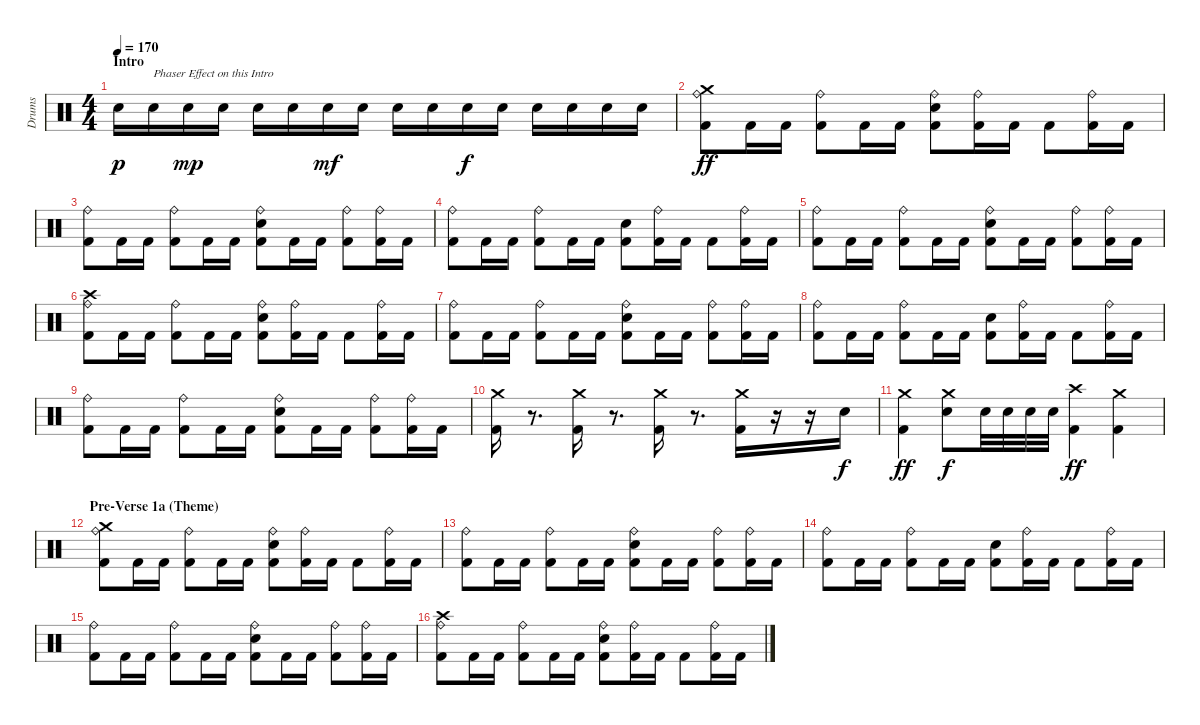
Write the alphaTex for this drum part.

\track ("Drums" "Drums") {instrument percussion}
\staff {score}
\articulation defaults
\ts (4 4)
\section ("" "Intro")
\tempo 170
\clef neutral
\ks c "Electric Snare (hit)".16{dy p} "Electric Snare (hit)".16{txt "Phaser Effect on this Intro"} "Electric Snare (hit)".16{dy mp} "Electric Snare (hit)".16 "Electric Snare (hit)".16 "Electric Snare (hit)".16 "Electric Snare (hit)".16{dy mf} "Electric Snare (hit)".16 "Electric Snare (hit)".16 "Electric Snare (hit)".16 "Electric Snare (hit)".16{dy f} "Electric Snare (hit)".16 "Electric Snare (hit)".16 "Electric Snare (hit)".16 "Electric Snare (hit)".16 "Electric Snare (hit)".16
|
("Crash medium (hit)" "Ride (bell)" "Kick (hit) 2").8{dy ff} "Kick (hit) 2".16 "Kick (hit) 2".16 ("Ride (bell)" "Kick (hit) 2").8 "Kick (hit) 2".16 "Kick (hit) 2".16 ("Ride (bell)" "Snare (hit) 2" "Kick (hit) 2").8 ("Ride (bell)" "Kick (hit) 2").16 "Kick (hit) 2".16 "Kick (hit) 2".8 ("Ride (bell)" "Kick (hit) 2").16 "Kick (hit) 2".16 |
("Ride (bell)" "Kick (hit) 2").8 "Kick (hit) 2".16 "Kick (hit) 2".16 ("Ride (bell)" "Kick (hit) 2").8 "Kick (hit) 2".16 "Kick (hit) 2".16 ("Ride (bell)" "Snare (hit) 2" "Kick (hit) 2").8 "Kick (hit) 2".16 "Kick (hit) 2".16 ("Ride (bell)" "Kick (hit) 2").8 ("Ride (bell)" "Kick (hit) 2").16 "Kick (hit) 2".16 |
("Ride (bell)" "Kick (hit) 2").8 "Kick (hit) 2".16 "Kick (hit) 2".16 ("Ride (bell)" "Kick (hit) 2").8 "Kick (hit) 2".16 "Kick (hit) 2".16 ("Snare (hit) 2" "Kick (hit) 2").8 ("Ride (bell)" "Kick (hit) 2").16 "Kick (hit) 2".16 "Kick (hit) 2".8 ("Ride (bell)" "Kick (hit) 2").16 "Kick (hit) 2".16 |
("Ride (bell)" "Kick (hit) 2").8 "Kick (hit) 2".16 "Kick (hit) 2".16 ("Ride (bell)" "Kick (hit) 2").8 "Kick (hit) 2".16 "Kick (hit) 2".16 ("Ride (bell)" "Snare (hit) 2" "Kick (hit) 2").8 "Kick (hit) 2".16 "Kick (hit) 2".16 ("Ride (bell)" "Kick (hit) 2").8 ("Ride (bell)" "Kick (hit) 2").16 "Kick (hit) 2".16 |
("Crash high (hit)" "Ride (bell)" "Kick (hit) 2").8 "Kick (hit) 2".16 "Kick (hit) 2".16 ("Ride (bell)" "Kick (hit) 2").8 "Kick (hit) 2".16 "Kick (hit) 2".16 ("Ride (bell)" "Snare (hit) 2" "Kick (hit) 2").8 ("Ride (bell)" "Kick (hit) 2").16 "Kick (hit) 2".16 "Kick (hit) 2".8 ("Ride (bell)" "Kick (hit) 2").16 "Kick (hit) 2".16 |
("Ride (bell)" "Kick (hit) 2").8 "Kick (hit) 2".16 "Kick (hit) 2".16 ("Ride (bell)" "Kick (hit) 2").8 "Kick (hit) 2".16 "Kick (hit) 2".16 ("Ride (bell)" "Snare (hit) 2" "Kick (hit) 2").8 "Kick (hit) 2".16 "Kick (hit) 2".16 ("Ride (bell)" "Kick (hit) 2").8 ("Ride (bell)" "Kick (hit) 2").16 "Kick (hit) 2".16 |
("Ride (bell)" "Kick (hit) 2").8 "Kick (hit) 2".16 "Kick (hit) 2".16 ("Ride (bell)" "Kick (hit) 2").8 "Kick (hit) 2".16 "Kick (hit) 2".16 ("Snare (hit) 2" "Kick (hit) 2").8 ("Ride (bell)" "Kick (hit) 2").16 "Kick (hit) 2".16 "Kick (hit) 2".8 ("Ride (bell)" "Kick (hit) 2").16 "Kick (hit) 2".16 |
("Ride (bell)" "Kick (hit) 2").8 "Kick (hit) 2".16 "Kick (hit) 2".16 ("Ride (bell)" "Kick (hit) 2").8 "Kick (hit) 2".16 "Kick (hit) 2".16 ("Ride (bell)" "Snare (hit) 2" "Kick (hit) 2").8 "Kick (hit) 2".16 "Kick (hit) 2".16 ("Ride (bell)" "Kick (hit) 2").8 ("Ride (bell)" "Kick (hit) 2").16 "Kick (hit) 2".16 |
("Crash medium (hit)" "Kick (hit) 2").16 r.8{d} ("Crash medium (hit)" "Kick (hit) 2").16 r.8{d} ("Crash medium (hit)" "Kick (hit) 2").16 r.8{d} ("Crash medium (hit)" "Kick (hit) 2").16 r.16 r.16 "Snare (hit) 2".16{dy f} |
("Crash medium (hit)" "Kick (hit) 2").4{dy ff} ("Crash medium (hit)" "Snare (hit) 2").8{dy f} "Snare (hit) 2".32 "Snare (hit) 2".32 "Snare (hit) 2".32 "Snare (hit) 2".32 ("Crash high (hit)" "Kick (hit) 2").4{dy ff} ("Crash medium (hit)" "Kick (hit) 2").4 |
\section ("" "Pre-Verse 1a (Theme)")
("Crash medium (hit)" "Ride (bell)" "Kick (hit) 2").8 "Kick (hit) 2".16 "Kick (hit) 2".16 ("Ride (bell)" "Kick (hit) 2").8 "Kick (hit) 2".16 "Kick (hit) 2".16 ("Ride (bell)" "Snare (hit) 2" "Kick (hit) 2").8 ("Ride (bell)" "Kick (hit) 2").16 "Kick (hit) 2".16 "Kick (hit) 2".8 ("Ride (bell)" "Kick (hit) 2").16 "Kick (hit) 2".16 |
("Ride (bell)" "Kick (hit) 2").8 "Kick (hit) 2".16 "Kick (hit) 2".16 ("Ride (bell)" "Kick (hit) 2").8 "Kick (hit) 2".16 "Kick (hit) 2".16 ("Ride (bell)" "Snare (hit) 2" "Kick (hit) 2").8 "Kick (hit) 2".16 "Kick (hit) 2".16 ("Ride (bell)" "Kick (hit) 2").8 ("Ride (bell)" "Kick (hit) 2").16 "Kick (hit) 2".16 |
("Ride (bell)" "Kick (hit) 2").8 "Kick (hit) 2".16 "Kick (hit) 2".16 ("Ride (bell)" "Kick (hit) 2").8 "Kick (hit) 2".16 "Kick (hit) 2".16 ("Snare (hit) 2" "Kick (hit) 2").8 ("Ride (bell)" "Kick (hit) 2").16 "Kick (hit) 2".16 "Kick (hit) 2".8 ("Ride (bell)" "Kick (hit) 2").16 "Kick (hit) 2".16 |
("Ride (bell)" "Kick (hit) 2").8 "Kick (hit) 2".16 "Kick (hit) 2".16 ("Ride (bell)" "Kick (hit) 2").8 "Kick (hit) 2".16 "Kick (hit) 2".16 ("Ride (bell)" "Snare (hit) 2" "Kick (hit) 2").8 "Kick (hit) 2".16 "Kick (hit) 2".16 ("Ride (bell)" "Kick (hit) 2").8 ("Ride (bell)" "Kick (hit) 2").16 "Kick (hit) 2".16 |
("Crash high (hit)" "Ride (bell)" "Kick (hit) 2").8 "Kick (hit) 2".16 "Kick (hit) 2".16 ("Ride (bell)" "Kick (hit) 2").8 "Kick (hit) 2".16 "Kick (hit) 2".16 ("Ride (bell)" "Snare (hit) 2" "Kick (hit) 2").8 ("Ride (bell)" "Kick (hit) 2").16 "Kick (hit) 2".16 "Kick (hit) 2".8 ("Ride (bell)" "Kick (hit) 2").16 "Kick (hit) 2".16
